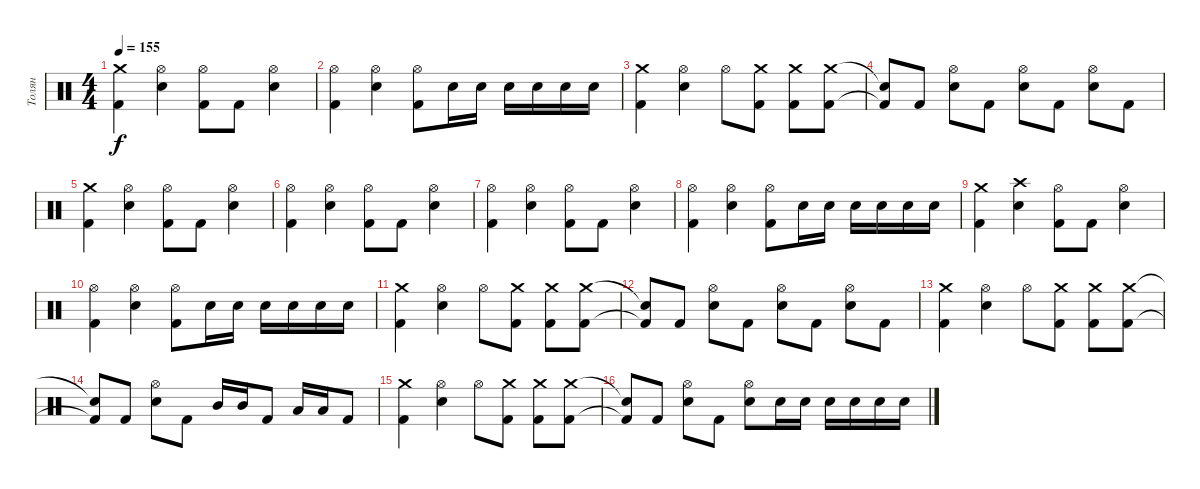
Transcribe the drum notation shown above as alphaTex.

\track ("Толян" "Толян") {instrument percussion}
\staff {score}
\articulation defaults
\ts (4 4)
\tempo 155
\clef neutral
\ks c
("Kick (hit) 2" "Crash medium (hit)").4{dy f} ("Electric Snare (hit)" "Hi-Hat (open)").4 ("Kick (hit) 2" "Hi-Hat (open)").8 "Kick (hit) 2".8 ("Electric Snare (hit)" "Hi-Hat (open)").4 |
("Kick (hit) 2" "Hi-Hat (open)").4 ("Electric Snare (hit)" "Hi-Hat (open)").4 ("Kick (hit) 2" "Hi-Hat (open)").8 "Electric Snare (hit)".16 "Electric Snare (hit)".16 "Electric Snare (hit)".16 "Electric Snare (hit)".16 "Electric Snare (hit)".16 "Electric Snare (hit)".16 |
("Kick (hit) 2" "Crash medium (hit)").4 ("Electric Snare (hit)" "Hi-Hat (open)").4 "Hi-Hat (open)".8 ("Kick (hit) 2" "Crash medium (hit)").8 ("Kick (hit) 2" "Crash medium (hit)").8 ("Kick (hit) 2" "Crash medium (hit)").8 |
("Kick (hit) 2"{t} "Snare (hit)"{t}).8 "Kick (hit) 2".8 ("Electric Snare (hit)" "Hi-Hat (open)").8 "Kick (hit) 2".8 ("Electric Snare (hit)" "Hi-Hat (open)").8 "Kick (hit) 2".8 ("Electric Snare (hit)" "Hi-Hat (open)").8 "Kick (hit) 2".8 |
("Kick (hit) 2" "Crash medium (hit)").4 ("Electric Snare (hit)" "Hi-Hat (open)").4 ("Kick (hit) 2" "Hi-Hat (open)").8 "Kick (hit) 2".8 ("Electric Snare (hit)" "Hi-Hat (open)").4 |
("Kick (hit) 2" "Hi-Hat (open)").4 ("Electric Snare (hit)" "Hi-Hat (open)").4 ("Kick (hit) 2" "Hi-Hat (open)").8 "Kick (hit) 2".8 ("Electric Snare (hit)" "Hi-Hat (open)").4 |
("Kick (hit) 2" "Hi-Hat (open)").4 ("Electric Snare (hit)" "Hi-Hat (open)").4 ("Kick (hit) 2" "Hi-Hat (open)").8 "Kick (hit) 2".8 ("Electric Snare (hit)" "Hi-Hat (open)").4 |
("Kick (hit) 2" "Hi-Hat (open)").4 ("Electric Snare (hit)" "Hi-Hat (open)").4 ("Kick (hit) 2" "Hi-Hat (open)").8 "Electric Snare (hit)".16 "Electric Snare (hit)".16 "Electric Snare (hit)".16 "Electric Snare (hit)".16 "Electric Snare (hit)".16 "Electric Snare (hit)".16 |
("Kick (hit) 2" "Crash medium (hit)").4 ("Electric Snare (hit)" "Crash high (hit)").4 ("Kick (hit) 2" "Hi-Hat (open)").8 "Kick (hit) 2".8 ("Electric Snare (hit)" "Hi-Hat (open)").4 |
("Kick (hit) 2" "Hi-Hat (open)").4 ("Electric Snare (hit)" "Hi-Hat (open)").4 ("Kick (hit) 2" "Hi-Hat (open)").8 "Electric Snare (hit)".16 "Electric Snare (hit)".16 "Electric Snare (hit)".16 "Electric Snare (hit)".16 "Electric Snare (hit)".16 "Electric Snare (hit)".16 |
("Kick (hit) 2" "Crash medium (hit)").4 ("Electric Snare (hit)" "Hi-Hat (open)").4 "Hi-Hat (open)".8 ("Kick (hit) 2" "Crash medium (hit)").8 ("Kick (hit) 2" "Crash medium (hit)").8 ("Kick (hit) 2" "Crash medium (hit)").8 |
("Kick (hit) 2"{t} "Snare (hit)"{t}).8 "Kick (hit) 2".8 ("Electric Snare (hit)" "Hi-Hat (open)").8 "Kick (hit) 2".8 ("Electric Snare (hit)" "Hi-Hat (open)").8 "Kick (hit) 2".8 ("Electric Snare (hit)" "Hi-Hat (open)").8 "Kick (hit) 2".8 |
("Kick (hit) 2" "Crash medium (hit)").4 ("Electric Snare (hit)" "Hi-Hat (open)").4 "Hi-Hat (open)".8 ("Kick (hit) 2" "Crash medium (hit)").8 ("Kick (hit) 2" "Crash medium (hit)").8 ("Kick (hit) 2" "Crash medium (hit)").8 |
("Kick (hit) 2"{t} "Snare (hit)"{t}).8 "Kick (hit) 2".8 ("Electric Snare (hit)" "Hi-Hat (open)").8 "Kick (hit) 2".8 "Mid Tom (hit)".16 "Mid Tom (hit)".16 "Kick (hit) 2".8 "Low Tom (hit)".16 "Low Tom (hit)".16 "Kick (hit) 2".8 |
("Kick (hit) 2" "Crash medium (hit)").4 ("Electric Snare (hit)" "Hi-Hat (open)").4 "Hi-Hat (open)".8 ("Kick (hit) 2" "Crash medium (hit)").8 ("Kick (hit) 2" "Crash medium (hit)").8 ("Kick (hit) 2" "Crash medium (hit)").8 |
("Kick (hit) 2"{t} "Snare (hit)"{t}).8 "Kick (hit) 2".8 ("Electric Snare (hit)" "Hi-Hat (open)").8 "Kick (hit) 2".8 ("Electric Snare (hit)" "Hi-Hat (open)").8 "Electric Snare (hit)".16 "Electric Snare (hit)".16 "Electric Snare (hit)".16 "Electric Snare (hit)".16 "Electric Snare (hit)".16 "Electric Snare (hit)".16
